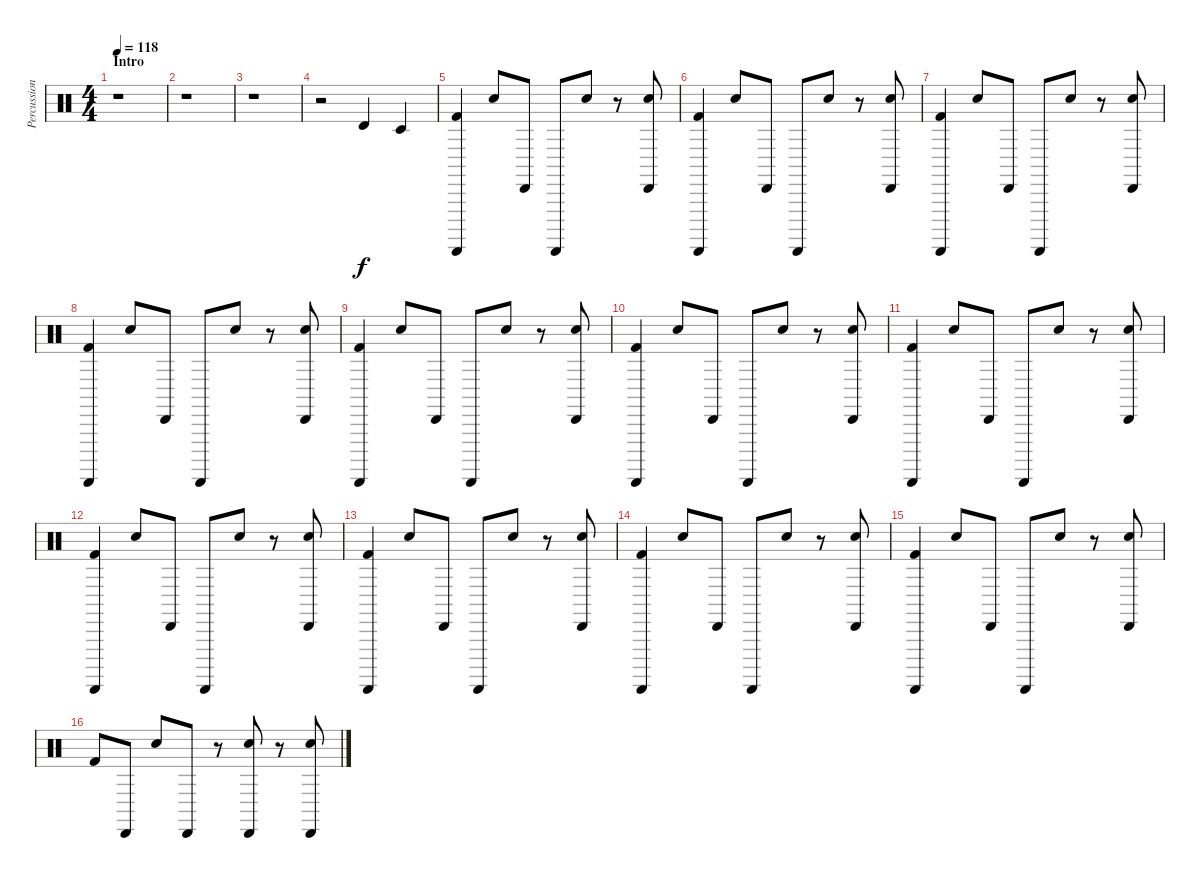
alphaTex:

\track ("Percussions" "Percussion") {instrument percussion}
\staff {score}
\articulation defaults
\ts (4 4)
\section ("" "Intro")
\tempo 118
\clef neutral
\ks c
r.1{dy f} |
r.1 |
r.1 |
r.2 "Timbale high (hit)".4 "Timbale low (hit)".4 |
("Guiro (scrap-return)" "Kick (hit) 2").4 "Snare (hit) 2".8 "Cabasa (hit)".8 "Guiro (scrap-return)".8 "Snare (hit) 2".8 r.8 ("Cabasa (hit)" "Snare (hit) 2").8 |
("Guiro (scrap-return)" "Kick (hit) 2").4 "Snare (hit) 2".8 "Cabasa (hit)".8 "Guiro (scrap-return)".8 "Snare (hit) 2".8 r.8 ("Cabasa (hit)" "Snare (hit) 2").8 |
("Guiro (scrap-return)" "Kick (hit) 2").4 "Snare (hit) 2".8 "Cabasa (hit)".8 "Guiro (scrap-return)".8 "Snare (hit) 2".8 r.8 ("Cabasa (hit)" "Snare (hit) 2").8 |
("Guiro (scrap-return)" "Kick (hit) 2").4 "Snare (hit) 2".8 "Cabasa (hit)".8 "Guiro (scrap-return)".8 "Snare (hit) 2".8 r.8 ("Cabasa (hit)" "Snare (hit) 2").8 |
("Guiro (scrap-return)" "Kick (hit) 2").4 "Snare (hit) 2".8 "Cabasa (hit)".8 "Guiro (scrap-return)".8 "Snare (hit) 2".8 r.8 ("Cabasa (hit)" "Snare (hit) 2").8 |
("Guiro (scrap-return)" "Kick (hit) 2").4 "Snare (hit) 2".8 "Cabasa (hit)".8 "Guiro (scrap-return)".8 "Snare (hit) 2".8 r.8 ("Cabasa (hit)" "Snare (hit) 2").8 |
("Guiro (scrap-return)" "Kick (hit) 2").4 "Snare (hit) 2".8 "Cabasa (hit)".8 "Guiro (scrap-return)".8 "Snare (hit) 2".8 r.8 ("Cabasa (hit)" "Snare (hit) 2").8 |
("Guiro (scrap-return)" "Kick (hit) 2").4 "Snare (hit) 2".8 "Cabasa (hit)".8 "Guiro (scrap-return)".8 "Snare (hit) 2".8 r.8 ("Cabasa (hit)" "Snare (hit) 2").8 |
("Guiro (scrap-return)" "Kick (hit) 2").4 "Snare (hit) 2".8 "Cabasa (hit)".8 "Guiro (scrap-return)".8 "Snare (hit) 2".8 r.8 ("Cabasa (hit)" "Snare (hit) 2").8 |
("Guiro (scrap-return)" "Kick (hit) 2").4 "Snare (hit) 2".8 "Cabasa (hit)".8 "Guiro (scrap-return)".8 "Snare (hit) 2".8 r.8 ("Cabasa (hit)" "Snare (hit) 2").8 |
("Guiro (scrap-return)" "Kick (hit) 2").4 "Snare (hit) 2".8 "Cabasa (hit)".8 "Guiro (scrap-return)".8 "Snare (hit) 2".8 r.8 ("Cabasa (hit)" "Snare (hit) 2").8 |
"Kick (hit) 2".8 "Cabasa (hit)".8 "Snare (hit) 2".8 "Cabasa (hit)".8 r.8 ("Cabasa (hit)" "Snare (hit) 2").8 r.8 ("Cabasa (hit)" "Snare (hit) 2").8
